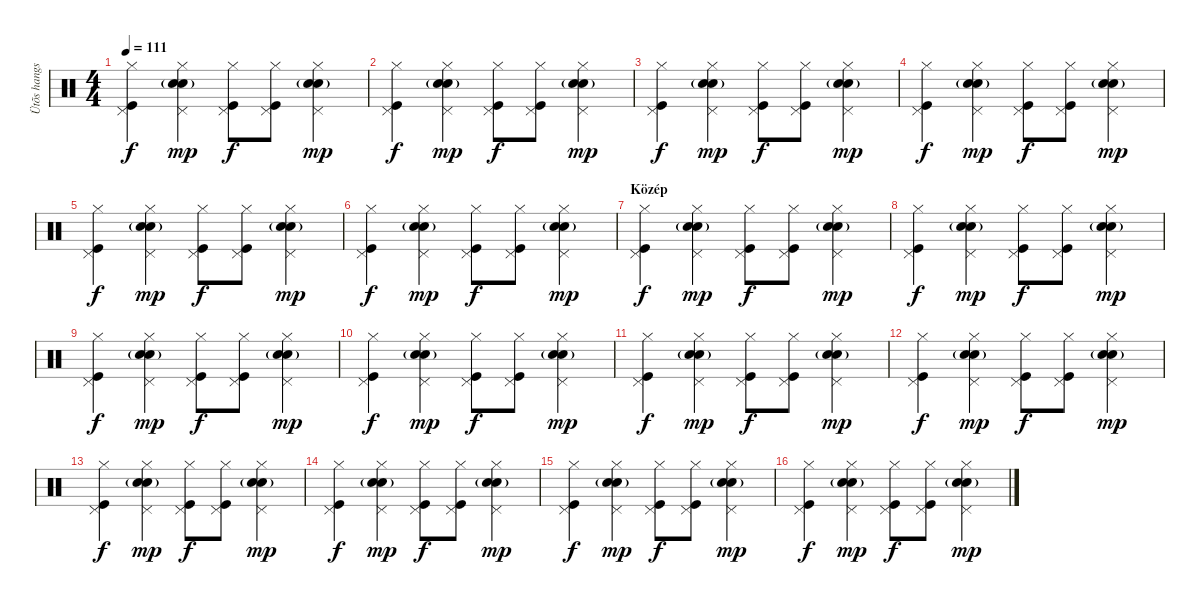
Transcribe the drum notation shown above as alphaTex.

\track ("Ütõs hangszer" "Ütõs hangs") {instrument percussion}
\staff {score}
\articulation defaults
\ts (4 4)
\tempo 111
\clef neutral
\ks c
("Hi-Hat (closed)" "Pedal Hi-Hat (hit)" "Kick (hit)").4{dy f} ("Hi-Hat (closed)" "Electric Snare (hit)"{g} "Snare (hit) 2" "Pedal Hi-Hat (hit)").4{dy mp} ("Hi-Hat (closed)" "Pedal Hi-Hat (hit)" "Kick (hit)").8{dy f} ("Hi-Hat (closed)" "Pedal Hi-Hat (hit)" "Kick (hit)").8 ("Hi-Hat (closed)" "Electric Snare (hit)"{g} "Snare (hit) 2" "Pedal Hi-Hat (hit)").4{dy mp} |
("Hi-Hat (closed)" "Pedal Hi-Hat (hit)" "Kick (hit)").4{dy f} ("Hi-Hat (closed)" "Electric Snare (hit)"{g} "Snare (hit) 2" "Pedal Hi-Hat (hit)").4{dy mp} ("Hi-Hat (closed)" "Pedal Hi-Hat (hit)" "Kick (hit)").8{dy f} ("Hi-Hat (closed)" "Pedal Hi-Hat (hit)" "Kick (hit)").8 ("Hi-Hat (closed)" "Electric Snare (hit)"{g} "Snare (hit) 2" "Pedal Hi-Hat (hit)").4{dy mp} |
("Hi-Hat (closed)" "Pedal Hi-Hat (hit)" "Kick (hit)").4{dy f} ("Hi-Hat (closed)" "Electric Snare (hit)"{g} "Snare (hit) 2" "Pedal Hi-Hat (hit)").4{dy mp} ("Hi-Hat (closed)" "Pedal Hi-Hat (hit)" "Kick (hit)").8{dy f} ("Hi-Hat (closed)" "Pedal Hi-Hat (hit)" "Kick (hit)").8 ("Hi-Hat (closed)" "Electric Snare (hit)"{g} "Snare (hit) 2" "Pedal Hi-Hat (hit)").4{dy mp} |
("Hi-Hat (closed)" "Pedal Hi-Hat (hit)" "Kick (hit)").4{dy f} ("Hi-Hat (closed)" "Electric Snare (hit)"{g} "Snare (hit) 2" "Pedal Hi-Hat (hit)").4{dy mp} ("Hi-Hat (closed)" "Pedal Hi-Hat (hit)" "Kick (hit)").8{dy f} ("Hi-Hat (closed)" "Pedal Hi-Hat (hit)" "Kick (hit)").8 ("Hi-Hat (closed)" "Electric Snare (hit)"{g} "Snare (hit) 2" "Pedal Hi-Hat (hit)").4{dy mp} |
("Hi-Hat (closed)" "Pedal Hi-Hat (hit)" "Kick (hit)").4{dy f} ("Hi-Hat (closed)" "Electric Snare (hit)"{g} "Snare (hit) 2" "Pedal Hi-Hat (hit)").4{dy mp} ("Hi-Hat (closed)" "Pedal Hi-Hat (hit)" "Kick (hit)").8{dy f} ("Hi-Hat (closed)" "Pedal Hi-Hat (hit)" "Kick (hit)").8 ("Hi-Hat (closed)" "Electric Snare (hit)"{g} "Snare (hit) 2" "Pedal Hi-Hat (hit)").4{dy mp} |
("Hi-Hat (closed)" "Pedal Hi-Hat (hit)" "Kick (hit)").4{dy f} ("Hi-Hat (closed)" "Electric Snare (hit)"{g} "Snare (hit) 2" "Pedal Hi-Hat (hit)").4{dy mp} ("Hi-Hat (closed)" "Pedal Hi-Hat (hit)" "Kick (hit)").8{dy f} ("Hi-Hat (closed)" "Pedal Hi-Hat (hit)" "Kick (hit)").8 ("Hi-Hat (closed)" "Electric Snare (hit)"{g} "Snare (hit) 2" "Pedal Hi-Hat (hit)").4{dy mp} |
\section ("" "Közép")
("Hi-Hat (closed)" "Pedal Hi-Hat (hit)" "Kick (hit)").4{dy f} ("Hi-Hat (closed)" "Electric Snare (hit)"{g} "Snare (hit) 2" "Pedal Hi-Hat (hit)").4{dy mp} ("Hi-Hat (closed)" "Pedal Hi-Hat (hit)" "Kick (hit)").8{dy f} ("Hi-Hat (closed)" "Pedal Hi-Hat (hit)" "Kick (hit)").8 ("Hi-Hat (closed)" "Electric Snare (hit)"{g} "Snare (hit) 2" "Pedal Hi-Hat (hit)").4{dy mp} |
("Hi-Hat (closed)" "Pedal Hi-Hat (hit)" "Kick (hit)").4{dy f} ("Hi-Hat (closed)" "Electric Snare (hit)"{g} "Snare (hit) 2" "Pedal Hi-Hat (hit)").4{dy mp} ("Hi-Hat (closed)" "Pedal Hi-Hat (hit)" "Kick (hit)").8{dy f} ("Hi-Hat (closed)" "Pedal Hi-Hat (hit)" "Kick (hit)").8 ("Hi-Hat (closed)" "Electric Snare (hit)"{g} "Snare (hit) 2" "Pedal Hi-Hat (hit)").4{dy mp} |
("Hi-Hat (closed)" "Pedal Hi-Hat (hit)" "Kick (hit)").4{dy f} ("Hi-Hat (closed)" "Electric Snare (hit)"{g} "Snare (hit) 2" "Pedal Hi-Hat (hit)").4{dy mp} ("Hi-Hat (closed)" "Pedal Hi-Hat (hit)" "Kick (hit)").8{dy f} ("Hi-Hat (closed)" "Pedal Hi-Hat (hit)" "Kick (hit)").8 ("Hi-Hat (closed)" "Electric Snare (hit)"{g} "Snare (hit) 2" "Pedal Hi-Hat (hit)").4{dy mp} |
("Hi-Hat (closed)" "Pedal Hi-Hat (hit)" "Kick (hit)").4{dy f} ("Hi-Hat (closed)" "Electric Snare (hit)"{g} "Snare (hit) 2" "Pedal Hi-Hat (hit)").4{dy mp} ("Hi-Hat (closed)" "Pedal Hi-Hat (hit)" "Kick (hit)").8{dy f} ("Hi-Hat (closed)" "Pedal Hi-Hat (hit)" "Kick (hit)").8 ("Hi-Hat (closed)" "Electric Snare (hit)"{g} "Snare (hit) 2" "Pedal Hi-Hat (hit)").4{dy mp} |
("Hi-Hat (closed)" "Pedal Hi-Hat (hit)" "Kick (hit)").4{dy f} ("Hi-Hat (closed)" "Electric Snare (hit)"{g} "Snare (hit) 2" "Pedal Hi-Hat (hit)").4{dy mp} ("Hi-Hat (closed)" "Pedal Hi-Hat (hit)" "Kick (hit)").8{dy f} ("Hi-Hat (closed)" "Pedal Hi-Hat (hit)" "Kick (hit)").8 ("Hi-Hat (closed)" "Electric Snare (hit)"{g} "Snare (hit) 2" "Pedal Hi-Hat (hit)").4{dy mp} |
("Hi-Hat (closed)" "Pedal Hi-Hat (hit)" "Kick (hit)").4{dy f} ("Hi-Hat (closed)" "Electric Snare (hit)"{g} "Snare (hit) 2" "Pedal Hi-Hat (hit)").4{dy mp} ("Hi-Hat (closed)" "Pedal Hi-Hat (hit)" "Kick (hit)").8{dy f} ("Hi-Hat (closed)" "Pedal Hi-Hat (hit)" "Kick (hit)").8 ("Hi-Hat (closed)" "Electric Snare (hit)"{g} "Snare (hit) 2" "Pedal Hi-Hat (hit)").4{dy mp} |
("Hi-Hat (closed)" "Pedal Hi-Hat (hit)" "Kick (hit)").4{dy f} ("Hi-Hat (closed)" "Electric Snare (hit)"{g} "Snare (hit) 2" "Pedal Hi-Hat (hit)").4{dy mp} ("Hi-Hat (closed)" "Pedal Hi-Hat (hit)" "Kick (hit)").8{dy f} ("Hi-Hat (closed)" "Pedal Hi-Hat (hit)" "Kick (hit)").8 ("Hi-Hat (closed)" "Electric Snare (hit)"{g} "Snare (hit) 2" "Pedal Hi-Hat (hit)").4{dy mp} |
("Hi-Hat (closed)" "Pedal Hi-Hat (hit)" "Kick (hit)").4{dy f} ("Hi-Hat (closed)" "Electric Snare (hit)"{g} "Snare (hit) 2" "Pedal Hi-Hat (hit)").4{dy mp} ("Hi-Hat (closed)" "Pedal Hi-Hat (hit)" "Kick (hit)").8{dy f} ("Hi-Hat (closed)" "Pedal Hi-Hat (hit)" "Kick (hit)").8 ("Hi-Hat (closed)" "Electric Snare (hit)"{g} "Snare (hit) 2" "Pedal Hi-Hat (hit)").4{dy mp} |
("Hi-Hat (closed)" "Pedal Hi-Hat (hit)" "Kick (hit)").4{dy f} ("Hi-Hat (closed)" "Electric Snare (hit)"{g} "Snare (hit) 2" "Pedal Hi-Hat (hit)").4{dy mp} ("Hi-Hat (closed)" "Pedal Hi-Hat (hit)" "Kick (hit)").8{dy f} ("Hi-Hat (closed)" "Pedal Hi-Hat (hit)" "Kick (hit)").8 ("Hi-Hat (closed)" "Electric Snare (hit)"{g} "Snare (hit) 2" "Pedal Hi-Hat (hit)").4{dy mp} |
("Hi-Hat (closed)" "Pedal Hi-Hat (hit)" "Kick (hit)").4{dy f} ("Hi-Hat (closed)" "Electric Snare (hit)"{g} "Snare (hit) 2" "Pedal Hi-Hat (hit)").4{dy mp} ("Hi-Hat (closed)" "Pedal Hi-Hat (hit)" "Kick (hit)").8{dy f} ("Hi-Hat (closed)" "Pedal Hi-Hat (hit)" "Kick (hit)").8 ("Hi-Hat (closed)" "Electric Snare (hit)"{g} "Snare (hit) 2" "Pedal Hi-Hat (hit)").4{dy mp}
